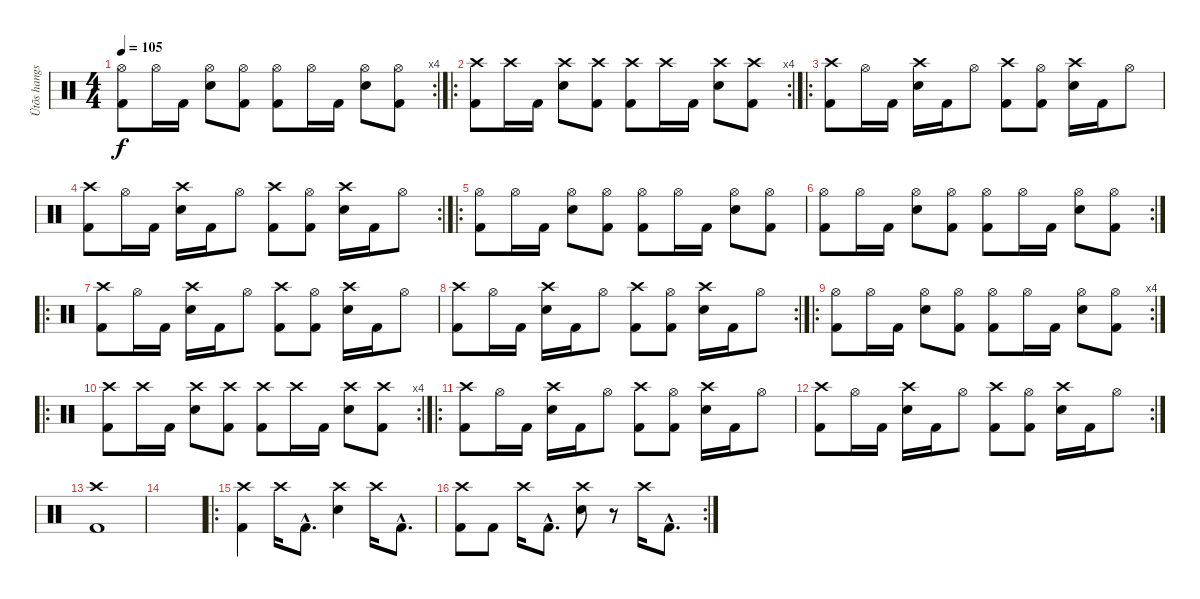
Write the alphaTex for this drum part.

\track ("Ütõs hangszer" "Ütõs hangs") {instrument percussion}
\staff {score}
\articulation defaults
\rc 4
\ts (4 4)
\tempo 105
\clef neutral
\ks c
("Hi-Hat (open)" "Kick (hit) 2").8{dy f} "Hi-Hat (open)".16 "Kick (hit) 2".16 ("Hi-Hat (open)" "Snare (hit) 2").8 ("Hi-Hat (open)" "Kick (hit) 2").8 ("Hi-Hat (open)" "Kick (hit) 2").8 "Hi-Hat (open)".16 "Kick (hit) 2".16 ("Hi-Hat (open)" "Snare (hit) 2").8 ("Hi-Hat (open)" "Kick (hit) 2").8 |
\ro
\rc 4
("Crash high (hit)" "Kick (hit) 2").8 "Crash high (hit)".16 "Kick (hit) 2".16 ("Crash high (hit)" "Snare (hit) 2").8 ("Crash high (hit)" "Kick (hit) 2").8 ("Crash high (hit)" "Kick (hit) 2").8 "Crash high (hit)".16 "Kick (hit) 2".16 ("Crash high (hit)" "Snare (hit) 2").8 ("Crash high (hit)" "Kick (hit) 2").8 |
\ro
("Crash high (hit)" "Kick (hit) 2").8 "Hi-Hat (open)".16 "Kick (hit) 2".16 ("Crash high (hit)" "Snare (hit) 2").16 "Kick (hit) 2".16 "Hi-Hat (open)".8 ("Crash high (hit)" "Kick (hit) 2").8 ("Hi-Hat (open)" "Kick (hit) 2").8 ("Crash high (hit)" "Snare (hit) 2").16 "Kick (hit) 2".16 "Hi-Hat (open)".8 |
\rc 2
("Crash high (hit)" "Kick (hit) 2").8 "Hi-Hat (open)".16 "Kick (hit) 2".16 ("Crash high (hit)" "Snare (hit) 2").16 "Kick (hit) 2".16 "Hi-Hat (open)".8 ("Crash high (hit)" "Kick (hit) 2").8 ("Hi-Hat (open)" "Kick (hit) 2").8 ("Crash high (hit)" "Snare (hit) 2").16 "Kick (hit) 2".16 "Hi-Hat (open)".8 |
\ro
("Hi-Hat (open)" "Kick (hit) 2").8 "Hi-Hat (open)".16 "Kick (hit) 2".16 ("Hi-Hat (open)" "Snare (hit) 2").8 ("Hi-Hat (open)" "Kick (hit) 2").8 ("Hi-Hat (open)" "Kick (hit) 2").8 "Hi-Hat (open)".16 "Kick (hit) 2".16 ("Hi-Hat (open)" "Snare (hit) 2").8 ("Hi-Hat (open)" "Kick (hit) 2").8 |
\rc 2
("Hi-Hat (open)" "Kick (hit) 2").8 "Hi-Hat (open)".16 "Kick (hit) 2".16 ("Hi-Hat (open)" "Snare (hit) 2").8 ("Hi-Hat (open)" "Kick (hit) 2").8 ("Hi-Hat (open)" "Kick (hit) 2").8 "Hi-Hat (open)".16 "Kick (hit) 2".16 ("Hi-Hat (open)" "Snare (hit) 2").8 ("Hi-Hat (open)" "Kick (hit) 2").8 |
\ro
("Crash high (hit)" "Kick (hit) 2").8 "Hi-Hat (open)".16 "Kick (hit) 2".16 ("Crash high (hit)" "Snare (hit) 2").16 "Kick (hit) 2".16 "Hi-Hat (open)".8 ("Crash high (hit)" "Kick (hit) 2").8 ("Hi-Hat (open)" "Kick (hit) 2").8 ("Crash high (hit)" "Snare (hit) 2").16 "Kick (hit) 2".16 "Hi-Hat (open)".8 |
\rc 2
("Crash high (hit)" "Kick (hit) 2").8 "Hi-Hat (open)".16 "Kick (hit) 2".16 ("Crash high (hit)" "Snare (hit) 2").16 "Kick (hit) 2".16 "Hi-Hat (open)".8 ("Crash high (hit)" "Kick (hit) 2").8 ("Hi-Hat (open)" "Kick (hit) 2").8 ("Crash high (hit)" "Snare (hit) 2").16 "Kick (hit) 2".16 "Hi-Hat (open)".8 |
\ro
\rc 4
("Hi-Hat (open)" "Kick (hit) 2").8 "Hi-Hat (open)".16 "Kick (hit) 2".16 ("Hi-Hat (open)" "Snare (hit) 2").8 ("Hi-Hat (open)" "Kick (hit) 2").8 ("Hi-Hat (open)" "Kick (hit) 2").8 "Hi-Hat (open)".16 "Kick (hit) 2".16 ("Hi-Hat (open)" "Snare (hit) 2").8 ("Hi-Hat (open)" "Kick (hit) 2").8 |
\ro
\rc 4
("Crash high (hit)" "Kick (hit) 2").8 "Crash high (hit)".16 "Kick (hit) 2".16 ("Crash high (hit)" "Snare (hit) 2").8 ("Crash high (hit)" "Kick (hit) 2").8 ("Crash high (hit)" "Kick (hit) 2").8 "Crash high (hit)".16 "Kick (hit) 2".16 ("Crash high (hit)" "Snare (hit) 2").8 ("Crash high (hit)" "Kick (hit) 2").8 |
\ro
("Crash high (hit)" "Kick (hit) 2").8 "Hi-Hat (open)".16 "Kick (hit) 2".16 ("Crash high (hit)" "Snare (hit) 2").16 "Kick (hit) 2".16 "Hi-Hat (open)".8 ("Crash high (hit)" "Kick (hit) 2").8 ("Hi-Hat (open)" "Kick (hit) 2").8 ("Crash high (hit)" "Snare (hit) 2").16 "Kick (hit) 2".16 "Hi-Hat (open)".8 |
\rc 2
("Crash high (hit)" "Kick (hit) 2").8 "Hi-Hat (open)".16 "Kick (hit) 2".16 ("Crash high (hit)" "Snare (hit) 2").16 "Kick (hit) 2".16 "Hi-Hat (open)".8 ("Crash high (hit)" "Kick (hit) 2").8 ("Hi-Hat (open)" "Kick (hit) 2").8 ("Crash high (hit)" "Snare (hit) 2").16 "Kick (hit) 2".16 "Hi-Hat (open)".8 |
("Crash high (hit)" "Kick (hit) 2").1 |
|
\ro
("Crash high (hit)" "Kick (hit) 2").4 "Crash high (hit)".16 "Kick (hit) 2"{hac}.8{d} ("Crash high (hit)" "Snare (hit) 2").4 "Crash high (hit)".16 "Kick (hit) 2"{hac}.8{d} |
\rc 2
("Crash high (hit)" "Kick (hit) 2").8 "Kick (hit) 2".8 "Crash high (hit)".16 "Kick (hit) 2"{hac}.8{d} ("Crash high (hit)" "Snare (hit) 2").8 r.8 "Crash high (hit)".16 "Kick (hit) 2"{hac}.8{d}
